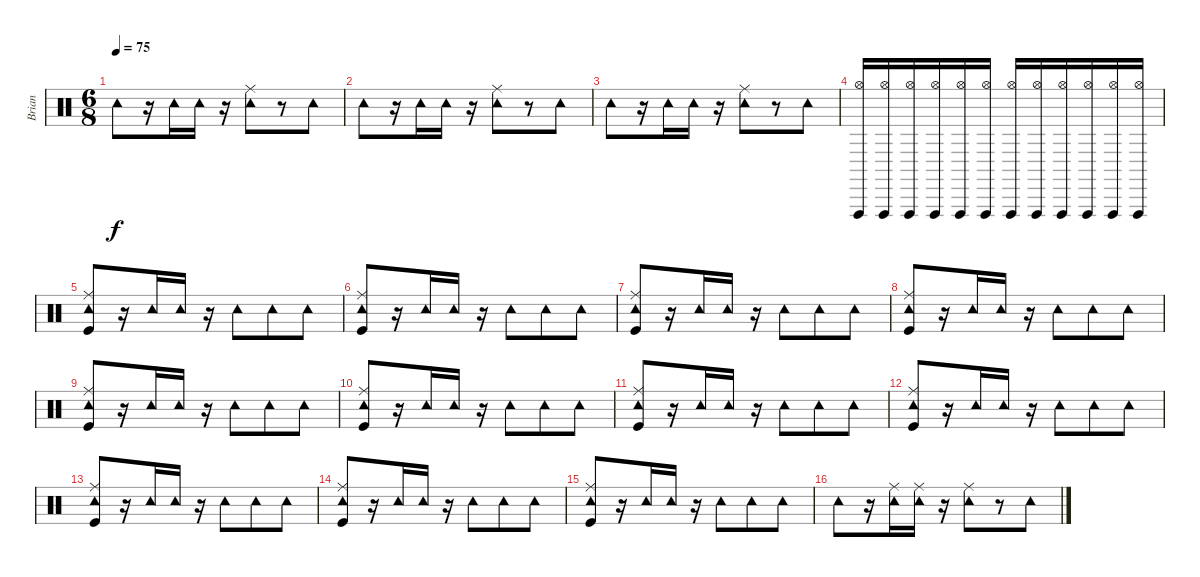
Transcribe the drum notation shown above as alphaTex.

\track ("Brian" "Brian") {instrument percussion}
\staff {score}
\articulation defaults
\ts (6 8)
\tempo 75
\clef neutral
\ks c "Tambourine (hit)".8{dy f}
r.16 "Tambourine (hit)".16 "Tambourine (hit)".16 r.16 ("Tambourine (hit)" "Ride (middle)").8 r.8 "Tambourine (hit)".8 |
"Tambourine (hit)".8 r.16 "Tambourine (hit)".16 "Tambourine (hit)".16 r.16 ("Tambourine (hit)" "Ride (middle)").8 r.8 "Tambourine (hit)".8 |
"Tambourine (hit)".8 r.16 "Tambourine (hit)".16 "Tambourine (hit)".16 r.16 ("Tambourine (hit)" "Ride (middle)").8 r.8 "Tambourine (hit)".8 |
("Hi-Hat (open)" "Vibraslap (hit)").16{volume 4 balance 16} ("Hi-Hat (open)" "Vibraslap (hit)").16 ("Hi-Hat (open)" "Vibraslap (hit)").16 ("Hi-Hat (open)" "Vibraslap (hit)").16 ("Hi-Hat (open)" "Vibraslap (hit)").16 ("Hi-Hat (open)" "Vibraslap (hit)").16 ("Hi-Hat (open)" "Vibraslap (hit)").16 ("Hi-Hat (open)" "Vibraslap (hit)").16 ("Hi-Hat (open)" "Vibraslap (hit)").16 ("Hi-Hat (open)" "Vibraslap (hit)").16 ("Hi-Hat (open)" "Vibraslap (hit)").16 ("Hi-Hat (open)" "Vibraslap (hit)").16{volume 10 balance 8} |
("Kick (hit)" "Tambourine (hit)" "Ride (middle)").8 r.16 "Tambourine (hit)".16 "Tambourine (hit)".16 r.16 "Tambourine (hit)".8 "Tambourine (hit)".8 "Tambourine (hit)".8 |
("Kick (hit)" "Tambourine (hit)" "Ride (middle)").8 r.16 "Tambourine (hit)".16 "Tambourine (hit)".16 r.16 "Tambourine (hit)".8 "Tambourine (hit)".8 "Tambourine (hit)".8 |
("Kick (hit)" "Tambourine (hit)" "Ride (middle)").8 r.16 "Tambourine (hit)".16 "Tambourine (hit)".16 r.16 "Tambourine (hit)".8 "Tambourine (hit)".8 "Tambourine (hit)".8 |
("Kick (hit)" "Tambourine (hit)" "Ride (middle)").8 r.16 "Tambourine (hit)".16 "Tambourine (hit)".16 r.16 "Tambourine (hit)".8 "Tambourine (hit)".8 "Tambourine (hit)".8 |
("Kick (hit)" "Tambourine (hit)" "Ride (middle)").8 r.16 "Tambourine (hit)".16 "Tambourine (hit)".16 r.16 "Tambourine (hit)".8 "Tambourine (hit)".8 "Tambourine (hit)".8 |
("Kick (hit)" "Tambourine (hit)" "Ride (middle)").8 r.16 "Tambourine (hit)".16 "Tambourine (hit)".16 r.16 "Tambourine (hit)".8 "Tambourine (hit)".8 "Tambourine (hit)".8 |
("Kick (hit)" "Tambourine (hit)" "Ride (middle)").8 r.16 "Tambourine (hit)".16 "Tambourine (hit)".16 r.16 "Tambourine (hit)".8 "Tambourine (hit)".8 "Tambourine (hit)".8 |
("Kick (hit)" "Tambourine (hit)" "Ride (middle)").8 r.16 "Tambourine (hit)".16 "Tambourine (hit)".16 r.16 "Tambourine (hit)".8 "Tambourine (hit)".8 "Tambourine (hit)".8 |
("Kick (hit)" "Tambourine (hit)" "Ride (middle)").8 r.16 "Tambourine (hit)".16 "Tambourine (hit)".16 r.16 "Tambourine (hit)".8 "Tambourine (hit)".8 "Tambourine (hit)".8 |
("Kick (hit)" "Tambourine (hit)" "Ride (middle)").8 r.16 "Tambourine (hit)".16 "Tambourine (hit)".16 r.16 "Tambourine (hit)".8 "Tambourine (hit)".8 "Tambourine (hit)".8 |
("Kick (hit)" "Tambourine (hit)" "Ride (middle)").8 r.16 "Tambourine (hit)".16 "Tambourine (hit)".16 r.16 "Tambourine (hit)".8 "Tambourine (hit)".8 "Tambourine (hit)".8 |
"Tambourine (hit)".8 r.16 ("Tambourine (hit)" "Ride (middle)").16 ("Tambourine (hit)" "Ride (middle)").16 r.16 ("Tambourine (hit)" "Ride (middle)").8 r.8 "Tambourine (hit)".8
